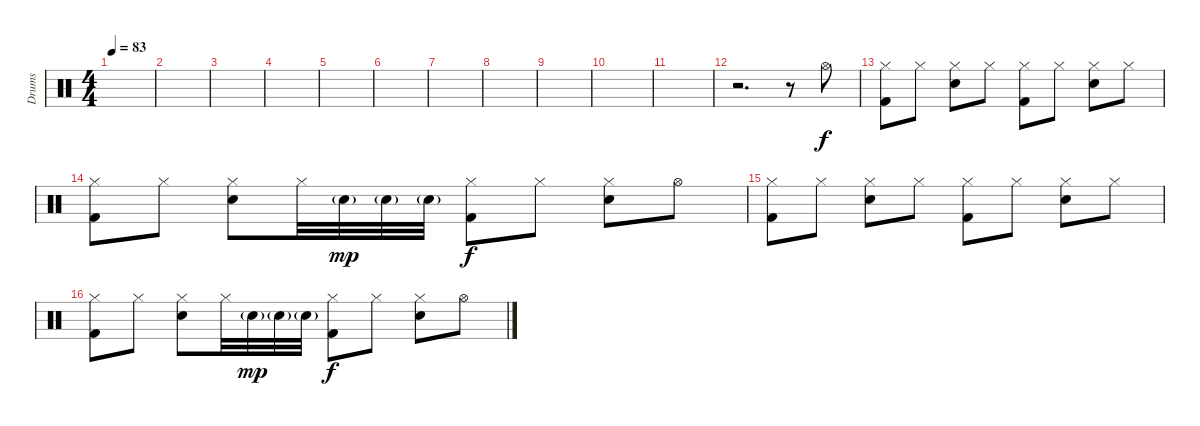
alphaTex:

\track ("Drums" "Drums") {instrument percussion}
\staff {score}
\articulation defaults
\ts (4 4)
\tempo 83
\clef neutral
\ks c
|
|
|
|
|
|
|
|
|
|
|
r.2{d} r.8 "Hi-Hat (open)".8 |
("Hi-Hat (closed)" "Kick (hit) 2").8 "Hi-Hat (closed)".8 ("Hi-Hat (closed)" "Snare (hit) 2").8 "Hi-Hat (closed)".8 ("Hi-Hat (closed)" "Kick (hit) 2").8 "Hi-Hat (closed)".8 ("Hi-Hat (closed)" "Snare (hit) 2").8 "Hi-Hat (closed)".8 |
("Hi-Hat (closed)" "Kick (hit) 2").8 "Hi-Hat (closed)".8 ("Hi-Hat (closed)" "Snare (hit) 2").8 "Hi-Hat (closed)".32 "Snare (hit) 2"{g}.32{dy mp} "Snare (hit) 2"{g}.32 "Snare (hit) 2"{g}.32 ("Hi-Hat (closed)" "Kick (hit) 2").8{dy f} "Hi-Hat (closed)".8 ("Hi-Hat (closed)" "Snare (hit) 2").8 "Hi-Hat (open)".8 |
("Hi-Hat (closed)" "Kick (hit) 2").8 "Hi-Hat (closed)".8 ("Hi-Hat (closed)" "Snare (hit) 2").8 "Hi-Hat (closed)".8 ("Hi-Hat (closed)" "Kick (hit) 2").8 "Hi-Hat (closed)".8 ("Hi-Hat (closed)" "Snare (hit) 2").8 "Hi-Hat (closed)".8 |
("Hi-Hat (closed)" "Kick (hit) 2").8 "Hi-Hat (closed)".8 ("Hi-Hat (closed)" "Snare (hit) 2").8 "Hi-Hat (closed)".32 "Snare (hit) 2"{g}.32{dy mp} "Snare (hit) 2"{g}.32 "Snare (hit) 2"{g}.32 ("Hi-Hat (closed)" "Kick (hit) 2").8{dy f} "Hi-Hat (closed)".8 ("Hi-Hat (closed)" "Snare (hit) 2").8 "Hi-Hat (open)".8
